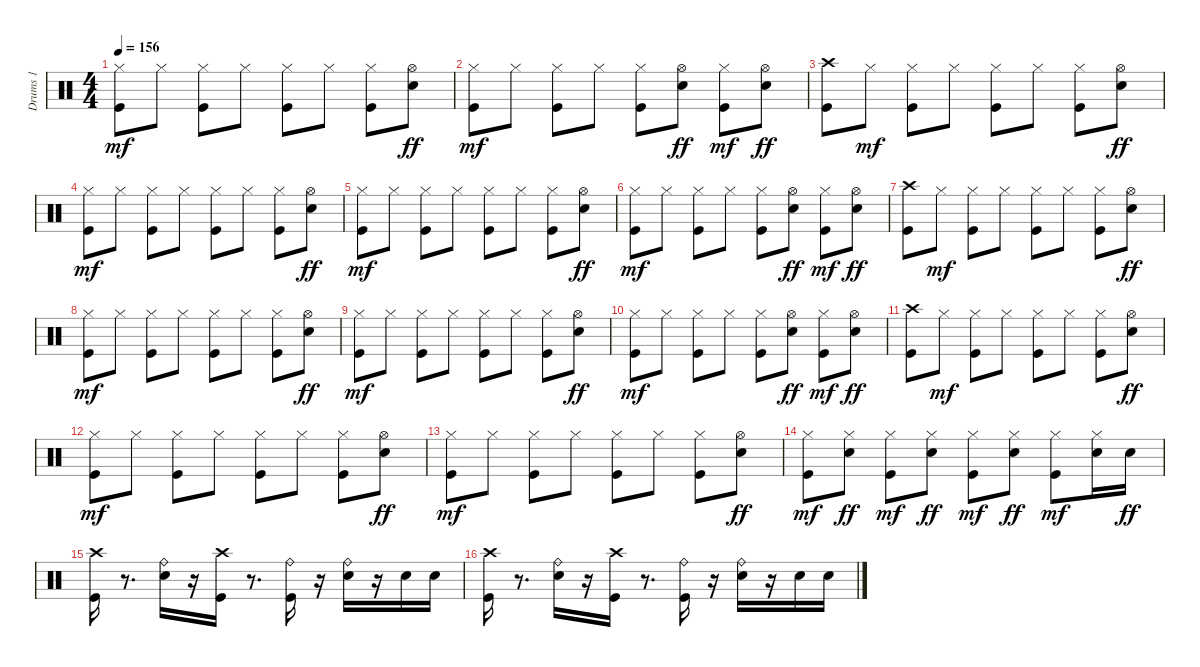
\track ("Drums 1" "Drums 1") {instrument percussion}
\staff {score}
\articulation defaults
\ts (4 4)
\tempo 156
\clef neutral
\ks c
("Kick (hit)" "Hi-Hat (closed)").8{dy mf} "Hi-Hat (closed)".8 ("Kick (hit)" "Hi-Hat (closed)").8 "Hi-Hat (closed)".8 ("Kick (hit)" "Hi-Hat (closed)").8 "Hi-Hat (closed)".8 ("Kick (hit)" "Hi-Hat (closed)").8 ("Electric Snare (hit)" "Hi-Hat (open)").8{dy ff} |
("Kick (hit)" "Hi-Hat (closed)").8{dy mf} "Hi-Hat (closed)".8 ("Kick (hit)" "Hi-Hat (closed)").8 "Hi-Hat (closed)".8 ("Kick (hit)" "Hi-Hat (closed)").8 ("Hi-Hat (open)" "Electric Snare (hit)").8{dy ff} ("Kick (hit)" "Hi-Hat (closed)").8{dy mf} ("Hi-Hat (open)" "Electric Snare (hit)").8{dy ff} |
("Kick (hit)" "Crash high (hit)").8 "Hi-Hat (closed)".8{dy mf} ("Kick (hit)" "Hi-Hat (closed)").8 "Hi-Hat (closed)".8 ("Kick (hit)" "Hi-Hat (closed)").8 "Hi-Hat (closed)".8 ("Kick (hit)" "Hi-Hat (closed)").8 ("Electric Snare (hit)" "Hi-Hat (open)").8{dy ff} |
("Kick (hit)" "Hi-Hat (closed)").8{dy mf} "Hi-Hat (closed)".8 ("Kick (hit)" "Hi-Hat (closed)").8 "Hi-Hat (closed)".8 ("Kick (hit)" "Hi-Hat (closed)").8 "Hi-Hat (closed)".8 ("Kick (hit)" "Hi-Hat (closed)").8 ("Electric Snare (hit)" "Hi-Hat (open)").8{dy ff} |
("Kick (hit)" "Hi-Hat (closed)").8{dy mf} "Hi-Hat (closed)".8 ("Kick (hit)" "Hi-Hat (closed)").8 "Hi-Hat (closed)".8 ("Kick (hit)" "Hi-Hat (closed)").8 "Hi-Hat (closed)".8 ("Kick (hit)" "Hi-Hat (closed)").8 ("Electric Snare (hit)" "Hi-Hat (open)").8{dy ff} |
("Kick (hit)" "Hi-Hat (closed)").8{dy mf} "Hi-Hat (closed)".8 ("Kick (hit)" "Hi-Hat (closed)").8 "Hi-Hat (closed)".8 ("Kick (hit)" "Hi-Hat (closed)").8 ("Hi-Hat (open)" "Electric Snare (hit)").8{dy ff} ("Kick (hit)" "Hi-Hat (closed)").8{dy mf} ("Hi-Hat (open)" "Electric Snare (hit)").8{dy ff} |
("Kick (hit)" "Crash high (hit)").8 "Hi-Hat (closed)".8{dy mf} ("Kick (hit)" "Hi-Hat (closed)").8 "Hi-Hat (closed)".8 ("Kick (hit)" "Hi-Hat (closed)").8 "Hi-Hat (closed)".8 ("Kick (hit)" "Hi-Hat (closed)").8 ("Electric Snare (hit)" "Hi-Hat (open)").8{dy ff} |
("Kick (hit)" "Hi-Hat (closed)").8{dy mf} "Hi-Hat (closed)".8 ("Kick (hit)" "Hi-Hat (closed)").8 "Hi-Hat (closed)".8 ("Kick (hit)" "Hi-Hat (closed)").8 "Hi-Hat (closed)".8 ("Kick (hit)" "Hi-Hat (closed)").8 ("Electric Snare (hit)" "Hi-Hat (open)").8{dy ff} |
("Kick (hit)" "Hi-Hat (closed)").8{dy mf} "Hi-Hat (closed)".8 ("Kick (hit)" "Hi-Hat (closed)").8 "Hi-Hat (closed)".8 ("Kick (hit)" "Hi-Hat (closed)").8 "Hi-Hat (closed)".8 ("Kick (hit)" "Hi-Hat (closed)").8 ("Electric Snare (hit)" "Hi-Hat (open)").8{dy ff} |
("Kick (hit)" "Hi-Hat (closed)").8{dy mf} "Hi-Hat (closed)".8 ("Kick (hit)" "Hi-Hat (closed)").8 "Hi-Hat (closed)".8 ("Kick (hit)" "Hi-Hat (closed)").8 ("Hi-Hat (open)" "Electric Snare (hit)").8{dy ff} ("Kick (hit)" "Hi-Hat (closed)").8{dy mf} ("Hi-Hat (open)" "Electric Snare (hit)").8{dy ff} |
("Kick (hit)" "Crash high (hit)").8 "Hi-Hat (closed)".8{dy mf} ("Kick (hit)" "Hi-Hat (closed)").8 "Hi-Hat (closed)".8 ("Kick (hit)" "Hi-Hat (closed)").8 "Hi-Hat (closed)".8 ("Kick (hit)" "Hi-Hat (closed)").8 ("Electric Snare (hit)" "Hi-Hat (open)").8{dy ff} |
("Kick (hit)" "Hi-Hat (closed)").8{dy mf} "Hi-Hat (closed)".8 ("Kick (hit)" "Hi-Hat (closed)").8 "Hi-Hat (closed)".8 ("Kick (hit)" "Hi-Hat (closed)").8 "Hi-Hat (closed)".8 ("Kick (hit)" "Hi-Hat (closed)").8 ("Electric Snare (hit)" "Hi-Hat (open)").8{dy ff} |
("Kick (hit)" "Hi-Hat (closed)").8{dy mf} "Hi-Hat (closed)".8 ("Kick (hit)" "Hi-Hat (closed)").8 "Hi-Hat (closed)".8 ("Kick (hit)" "Hi-Hat (closed)").8 "Hi-Hat (closed)".8 ("Kick (hit)" "Hi-Hat (closed)").8 ("Electric Snare (hit)" "Hi-Hat (open)").8{dy ff} |
("Kick (hit)" "Hi-Hat (closed)").8{dy mf} ("Hi-Hat (closed)" "Electric Snare (hit)").8{dy ff} ("Kick (hit)" "Hi-Hat (closed)").8{dy mf} ("Hi-Hat (closed)" "Electric Snare (hit)").8{dy ff} ("Kick (hit)" "Hi-Hat (closed)").8{dy mf} ("Hi-Hat (closed)" "Electric Snare (hit)").8{dy ff} ("Kick (hit)" "Hi-Hat (closed)").8{dy mf} ("Electric Snare (hit)" "Hi-Hat (closed)").16 "Electric Snare (hit)".16{dy ff} |
("Kick (hit)" "Crash high (hit)").16 r.8{d} ("Ride (bell)" "Electric Snare (hit)").16 r.16 ("Crash high (hit)" "Kick (hit)").16 r.8{d} ("Ride (bell)" "Kick (hit)").16 r.16 ("Electric Snare (hit)" "Ride (bell)").16 r.16 "Electric Snare (hit)".16 "Electric Snare (hit)".16 |
("Kick (hit)" "Crash high (hit)").16 r.8{d} ("Ride (bell)" "Electric Snare (hit)").16 r.16 ("Crash high (hit)" "Kick (hit)").16 r.8{d} ("Ride (bell)" "Kick (hit)").16 r.16 ("Electric Snare (hit)" "Ride (bell)").16 r.16 "Electric Snare (hit)".16 "Electric Snare (hit)".16
